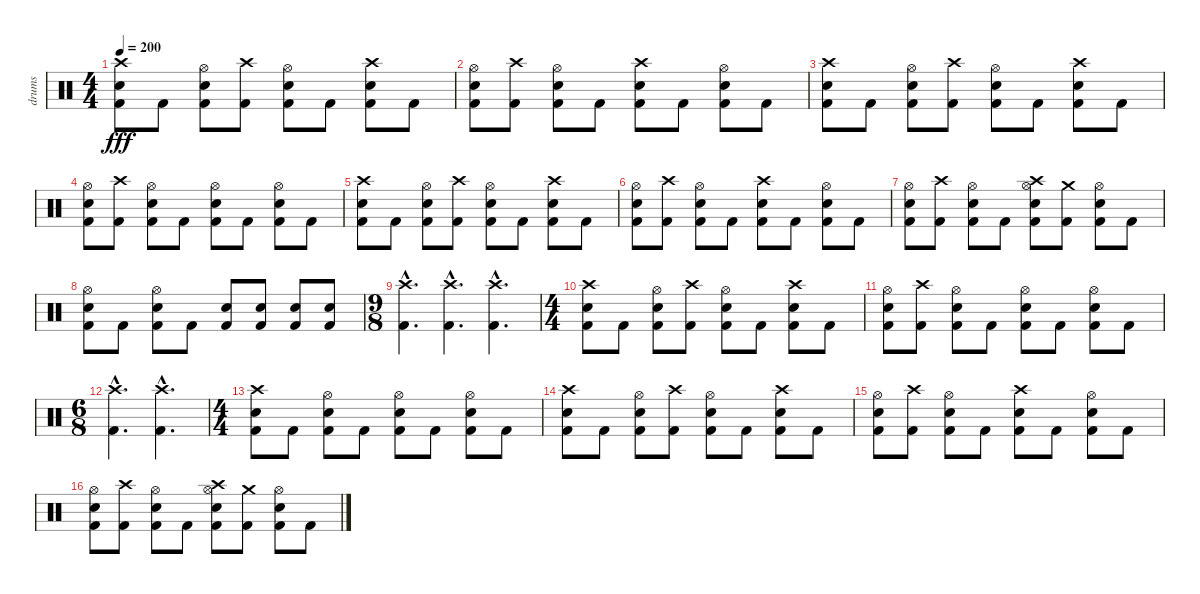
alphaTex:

\track ("drums" "drums") {instrument percussion}
\staff {score}
\articulation defaults
\ts (4 4)
\tempo 200
\clef neutral
\ks c
("Crash high (hit)" "Snare (hit) 2" "Kick (hit) 2").8{dy fff} "Kick (hit) 2".8 ("Hi-Hat (open)" "Snare (hit) 2" "Kick (hit) 2").8 ("Crash high (hit)" "Kick (hit) 2").8 ("Hi-Hat (open)" "Snare (hit) 2" "Kick (hit) 2").8 "Kick (hit) 2".8 ("Crash high (hit)" "Snare (hit) 2" "Kick (hit) 2").8 "Kick (hit) 2".8 |
("Hi-Hat (open)" "Snare (hit) 2" "Kick (hit) 2").8 ("Crash high (hit)" "Kick (hit) 2").8 ("Hi-Hat (open)" "Snare (hit) 2" "Kick (hit) 2").8 "Kick (hit) 2".8 ("Crash high (hit)" "Snare (hit) 2" "Kick (hit) 2").8 "Kick (hit) 2".8 ("Hi-Hat (open)" "Snare (hit) 2" "Kick (hit) 2").8 "Kick (hit) 2".8 |
("Crash high (hit)" "Snare (hit) 2" "Kick (hit) 2").8 "Kick (hit) 2".8 ("Hi-Hat (open)" "Snare (hit) 2" "Kick (hit) 2").8 ("Crash high (hit)" "Kick (hit) 2").8 ("Hi-Hat (open)" "Snare (hit) 2" "Kick (hit) 2").8 "Kick (hit) 2".8 ("Crash high (hit)" "Snare (hit) 2" "Kick (hit) 2").8 "Kick (hit) 2".8 |
("Hi-Hat (open)" "Snare (hit) 2" "Kick (hit) 2").8 ("Crash high (hit)" "Kick (hit) 2").8 ("Hi-Hat (open)" "Snare (hit) 2" "Kick (hit) 2").8 "Kick (hit) 2".8 ("Hi-Hat (open)" "Snare (hit) 2" "Kick (hit) 2").8 "Kick (hit) 2".8 ("Hi-Hat (open)" "Snare (hit) 2" "Kick (hit) 2").8 "Kick (hit) 2".8 |
("Crash high (hit)" "Snare (hit) 2" "Kick (hit) 2").8 "Kick (hit) 2".8 ("Hi-Hat (open)" "Snare (hit) 2" "Kick (hit) 2").8 ("Crash high (hit)" "Kick (hit) 2").8 ("Hi-Hat (open)" "Snare (hit) 2" "Kick (hit) 2").8 "Kick (hit) 2".8 ("Crash high (hit)" "Snare (hit) 2" "Kick (hit) 2").8 "Kick (hit) 2".8 |
("Hi-Hat (open)" "Snare (hit) 2" "Kick (hit) 2").8 ("Crash high (hit)" "Kick (hit) 2").8 ("Hi-Hat (open)" "Snare (hit) 2" "Kick (hit) 2").8 "Kick (hit) 2".8 ("Crash high (hit)" "Snare (hit) 2" "Kick (hit) 2").8 "Kick (hit) 2".8 ("Hi-Hat (open)" "Snare (hit) 2" "Kick (hit) 2").8 "Kick (hit) 2".8 |
("Hi-Hat (open)" "Snare (hit) 2" "Kick (hit) 2").8 ("Crash high (hit)" "Kick (hit) 2").8 ("Hi-Hat (open)" "Snare (hit) 2" "Kick (hit) 2").8 "Kick (hit) 2".8 ("Crash high (hit)" "Hi-Hat (open)" "Snare (hit) 2" "Kick (hit) 2").8 ("Crash medium (hit)" "Kick (hit) 2").8 ("Hi-Hat (open)" "Snare (hit) 2" "Kick (hit) 2").8 "Kick (hit) 2".8 |
("Hi-Hat (open)" "Snare (hit) 2" "Kick (hit) 2").8 "Kick (hit) 2".8 ("Hi-Hat (open)" "Snare (hit) 2" "Kick (hit) 2").8 "Kick (hit) 2".8 ("Snare (hit) 2" "Kick (hit) 2").8 ("Snare (hit) 2" "Kick (hit) 2").8 ("Snare (hit) 2" "Kick (hit) 2").8 ("Snare (hit) 2" "Kick (hit) 2").8 |
\ts (9 8)
("Crash high (hit)"{hac} "Kick (hit) 2"{hac}).4{d} ("Crash high (hit)"{hac} "Kick (hit) 2"{hac}).4{d} ("Crash high (hit)"{hac} "Kick (hit) 2"{hac}).4{d} |
\ts (4 4)
("Crash high (hit)" "Snare (hit) 2" "Kick (hit) 2").8 "Kick (hit) 2".8 ("Hi-Hat (open)" "Snare (hit) 2" "Kick (hit) 2").8 ("Crash high (hit)" "Kick (hit) 2").8 ("Hi-Hat (open)" "Snare (hit) 2" "Kick (hit) 2").8 "Kick (hit) 2".8 ("Crash high (hit)" "Snare (hit) 2" "Kick (hit) 2").8 "Kick (hit) 2".8 |
("Hi-Hat (open)" "Snare (hit) 2" "Kick (hit) 2").8 ("Crash high (hit)" "Kick (hit) 2").8 ("Hi-Hat (open)" "Snare (hit) 2" "Kick (hit) 2").8 "Kick (hit) 2".8 ("Hi-Hat (open)" "Snare (hit) 2" "Kick (hit) 2").8 "Kick (hit) 2".8 ("Hi-Hat (open)" "Snare (hit) 2" "Kick (hit) 2").8 "Kick (hit) 2".8 |
\ts (6 8)
("Crash high (hit)"{hac} "Kick (hit) 2"{hac}).4{d} ("Crash high (hit)"{hac} "Kick (hit) 2"{hac}).4{d} |
\ts (4 4)
("Crash high (hit)" "Snare (hit) 2" "Kick (hit) 2").8 "Kick (hit) 2".8 ("Hi-Hat (open)" "Snare (hit) 2" "Kick (hit) 2").8 "Kick (hit) 2".8 ("Hi-Hat (open)" "Snare (hit) 2" "Kick (hit) 2").8 "Kick (hit) 2".8 ("Hi-Hat (open)" "Snare (hit) 2" "Kick (hit) 2").8 "Kick (hit) 2".8 |
("Crash high (hit)" "Snare (hit) 2" "Kick (hit) 2").8 "Kick (hit) 2".8 ("Hi-Hat (open)" "Snare (hit) 2" "Kick (hit) 2").8 ("Crash high (hit)" "Kick (hit) 2").8 ("Hi-Hat (open)" "Snare (hit) 2" "Kick (hit) 2").8 "Kick (hit) 2".8 ("Crash high (hit)" "Snare (hit) 2" "Kick (hit) 2").8 "Kick (hit) 2".8 |
("Hi-Hat (open)" "Snare (hit) 2" "Kick (hit) 2").8 ("Crash high (hit)" "Kick (hit) 2").8 ("Hi-Hat (open)" "Snare (hit) 2" "Kick (hit) 2").8 "Kick (hit) 2".8 ("Crash high (hit)" "Snare (hit) 2" "Kick (hit) 2").8 "Kick (hit) 2".8 ("Hi-Hat (open)" "Snare (hit) 2" "Kick (hit) 2").8 "Kick (hit) 2".8 |
("Hi-Hat (open)" "Snare (hit) 2" "Kick (hit) 2").8 ("Crash high (hit)" "Kick (hit) 2").8 ("Hi-Hat (open)" "Snare (hit) 2" "Kick (hit) 2").8 "Kick (hit) 2".8 ("Crash high (hit)" "Hi-Hat (open)" "Snare (hit) 2" "Kick (hit) 2").8 ("Crash medium (hit)" "Kick (hit) 2").8 ("Hi-Hat (open)" "Snare (hit) 2" "Kick (hit) 2").8 "Kick (hit) 2".8
